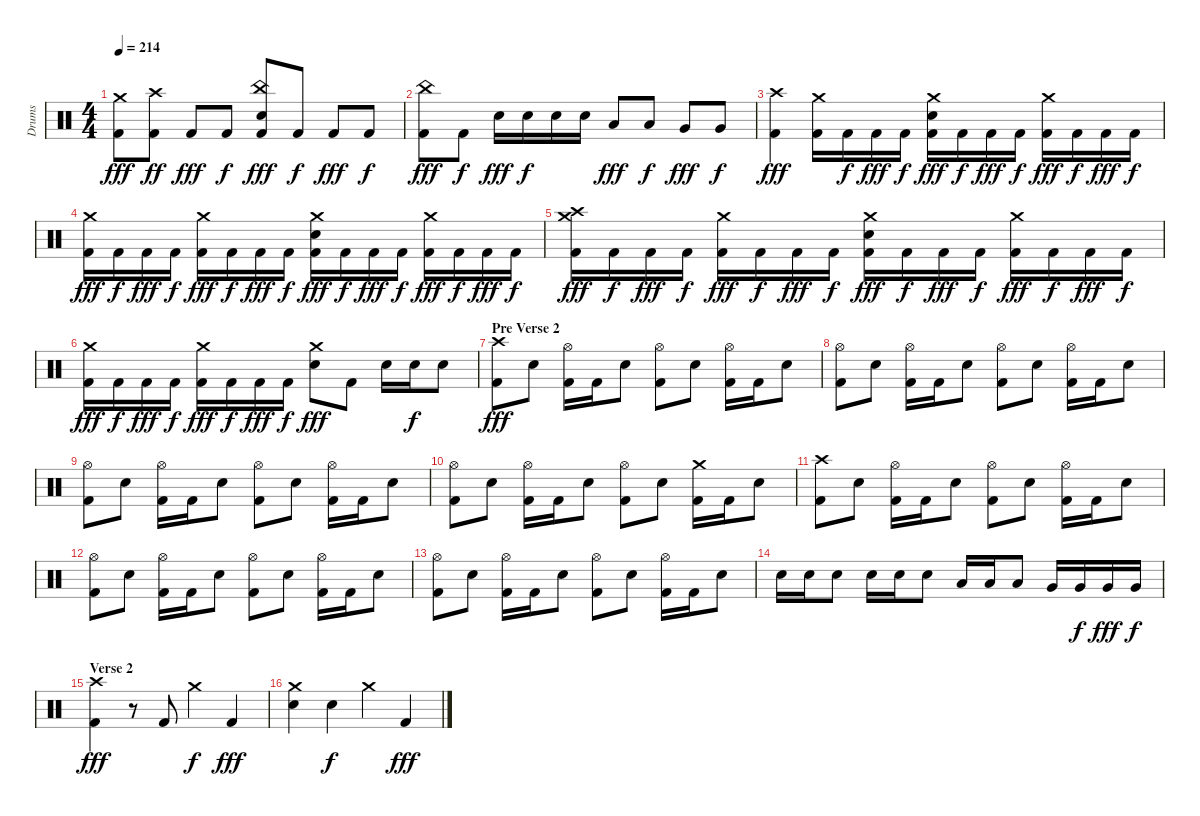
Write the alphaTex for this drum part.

\track ("Drums" "Drums") {instrument percussion}
\staff {score}
\articulation defaults
\ts (4 4)
\tempo 214
\clef neutral
\ks c
("Crash medium (hit)" "Kick (hit) 2").8{dy fff} ("Crash high (hit)" "Kick (hit) 2").8{dy ff} "Kick (hit) 2".8{dy fff} "Kick (hit) 2".8{dy f} ("China (hit)" "Electric Snare (hit)" "Kick (hit) 2").8{dy fff} "Kick (hit) 2".8{dy f} "Kick (hit) 2".8{dy fff} "Kick (hit) 2".8{dy f} |
("China (hit)" "Kick (hit) 2").8{dy fff} "Kick (hit) 2".8{dy f} "Electric Snare (hit)".16{dy fff} "Electric Snare (hit)".16{dy f} "Electric Snare (hit)".16 "Electric Snare (hit)".16 "Low Tom (hit)".8{dy fff} "Low Tom (hit)".8{dy f} "Very Low Tom (hit)".8{dy fff} "Very Low Tom (hit)".8{dy f} |
("Crash high (hit)" "Kick (hit) 2").4{dy fff} ("Crash medium (hit)" "Kick (hit) 2").16 "Kick (hit) 2".16{dy f} "Kick (hit) 2".16{dy fff} "Kick (hit) 2".16{dy f} ("Crash medium (hit)" "Electric Snare (hit)" "Kick (hit) 2").16{dy fff} "Kick (hit) 2".16{dy f} "Kick (hit) 2".16{dy fff} "Kick (hit) 2".16{dy f} ("Crash medium (hit)" "Kick (hit) 2").16{dy fff} "Kick (hit) 2".16{dy f} "Kick (hit) 2".16{dy fff} "Kick (hit) 2".16{dy f} |
("Crash medium (hit)" "Kick (hit) 2").16{dy fff} "Kick (hit) 2".16{dy f} "Kick (hit) 2".16{dy fff} "Kick (hit) 2".16{dy f} ("Crash medium (hit)" "Kick (hit) 2").16{dy fff} "Kick (hit) 2".16{dy f} "Kick (hit) 2".16{dy fff} "Kick (hit) 2".16{dy f} ("Crash medium (hit)" "Electric Snare (hit)" "Kick (hit) 2").16{dy fff} "Kick (hit) 2".16{dy f} "Kick (hit) 2".16{dy fff} "Kick (hit) 2".16{dy f} ("Crash medium (hit)" "Kick (hit) 2").16{dy fff} "Kick (hit) 2".16{dy f} "Kick (hit) 2".16{dy fff} "Kick (hit) 2".16{dy f} |
("Crash medium (hit)" "Crash high (hit)" "Kick (hit) 2").16{dy fff} "Kick (hit) 2".16{dy f} "Kick (hit) 2".16{dy fff} "Kick (hit) 2".16{dy f} ("Crash medium (hit)" "Kick (hit) 2").16{dy fff} "Kick (hit) 2".16{dy f} "Kick (hit) 2".16{dy fff} "Kick (hit) 2".16{dy f} ("Crash medium (hit)" "Electric Snare (hit)" "Kick (hit) 2").16{dy fff} "Kick (hit) 2".16{dy f} "Kick (hit) 2".16{dy fff} "Kick (hit) 2".16{dy f} ("Crash medium (hit)" "Kick (hit) 2").16{dy fff} "Kick (hit) 2".16{dy f} "Kick (hit) 2".16{dy fff} "Kick (hit) 2".16{dy f} |
("Crash medium (hit)" "Kick (hit) 2").16{dy fff} "Kick (hit) 2".16{dy f} "Kick (hit) 2".16{dy fff} "Kick (hit) 2".16{dy f} ("Crash medium (hit)" "Kick (hit) 2").16{dy fff} "Kick (hit) 2".16{dy f} "Kick (hit) 2".16{dy fff} "Kick (hit) 2".16{dy f} ("Crash medium (hit)" "Electric Snare (hit)").8{dy fff} "Kick (hit) 2".8 "Electric Snare (hit)".16 "Electric Snare (hit)".16{dy f} "Electric Snare (hit)".8 |
\section ("" "Pre Verse 2")
("Crash high (hit)" "Kick (hit) 2").8{dy fff} "Electric Snare (hit)".8 ("Hi-Hat (open)" "Kick (hit) 2").16 "Kick (hit) 2".16 "Electric Snare (hit)".8 ("Hi-Hat (open)" "Kick (hit) 2").8 "Electric Snare (hit)".8 ("Hi-Hat (open)" "Kick (hit) 2").16 "Kick (hit) 2".16 "Electric Snare (hit)".8 |
("Hi-Hat (open)" "Kick (hit) 2").8 "Electric Snare (hit)".8 ("Hi-Hat (open)" "Kick (hit) 2").16 "Kick (hit) 2".16 "Electric Snare (hit)".8 ("Hi-Hat (open)" "Kick (hit) 2").8 "Electric Snare (hit)".8 ("Hi-Hat (open)" "Kick (hit) 2").16 "Kick (hit) 2".16 "Electric Snare (hit)".8 |
("Hi-Hat (open)" "Kick (hit) 2").8 "Electric Snare (hit)".8 ("Hi-Hat (open)" "Kick (hit) 2").16 "Kick (hit) 2".16 "Electric Snare (hit)".8 ("Hi-Hat (open)" "Kick (hit) 2").8 "Electric Snare (hit)".8 ("Hi-Hat (open)" "Kick (hit) 2").16 "Kick (hit) 2".16 "Electric Snare (hit)".8 |
("Hi-Hat (open)" "Kick (hit) 2").8 "Electric Snare (hit)".8 ("Hi-Hat (open)" "Kick (hit) 2").16 "Kick (hit) 2".16 "Electric Snare (hit)".8 ("Hi-Hat (open)" "Kick (hit) 2").8 "Electric Snare (hit)".8 ("Crash medium (hit)" "Kick (hit) 2").16 "Kick (hit) 2".16 "Electric Snare (hit)".8 |
("Crash high (hit)" "Kick (hit) 2").8 "Electric Snare (hit)".8 ("Hi-Hat (open)" "Kick (hit) 2").16 "Kick (hit) 2".16 "Electric Snare (hit)".8 ("Hi-Hat (open)" "Kick (hit) 2").8 "Electric Snare (hit)".8 ("Hi-Hat (open)" "Kick (hit) 2").16 "Kick (hit) 2".16 "Electric Snare (hit)".8 |
("Hi-Hat (open)" "Kick (hit) 2").8 "Electric Snare (hit)".8 ("Hi-Hat (open)" "Kick (hit) 2").16 "Kick (hit) 2".16 "Electric Snare (hit)".8 ("Hi-Hat (open)" "Kick (hit) 2").8 "Electric Snare (hit)".8 ("Hi-Hat (open)" "Kick (hit) 2").16 "Kick (hit) 2".16 "Electric Snare (hit)".8 |
("Hi-Hat (open)" "Kick (hit) 2").8 "Electric Snare (hit)".8 ("Hi-Hat (open)" "Kick (hit) 2").16 "Kick (hit) 2".16 "Electric Snare (hit)".8 ("Hi-Hat (open)" "Kick (hit) 2").8 "Electric Snare (hit)".8 ("Hi-Hat (open)" "Kick (hit) 2").16 "Kick (hit) 2".16 "Electric Snare (hit)".8 |
"Electric Snare (hit)".16 "Electric Snare (hit)".16 "Electric Snare (hit)".8 "Electric Snare (hit)".16 "Electric Snare (hit)".16 "Electric Snare (hit)".8 "Low Tom (hit)".16 "Low Tom (hit)".16 "Low Tom (hit)".8 "Very Low Tom (hit)".16 "Very Low Tom (hit)".16{dy f} "Very Low Tom (hit)".16{dy fff} "Very Low Tom (hit)".16{dy f} |
\section ("" "Verse 2")
("Crash high (hit)" "Kick (hit) 2").4{dy fff} r.8 "Kick (hit) 2".8 "Crash medium (hit)".4{dy f} "Kick (hit) 2".4{dy fff} |
("Crash medium (hit)" "Electric Snare (hit)").4 "Electric Snare (hit)".4{dy f} "Crash medium (hit)".4 "Kick (hit) 2".4{dy fff}
